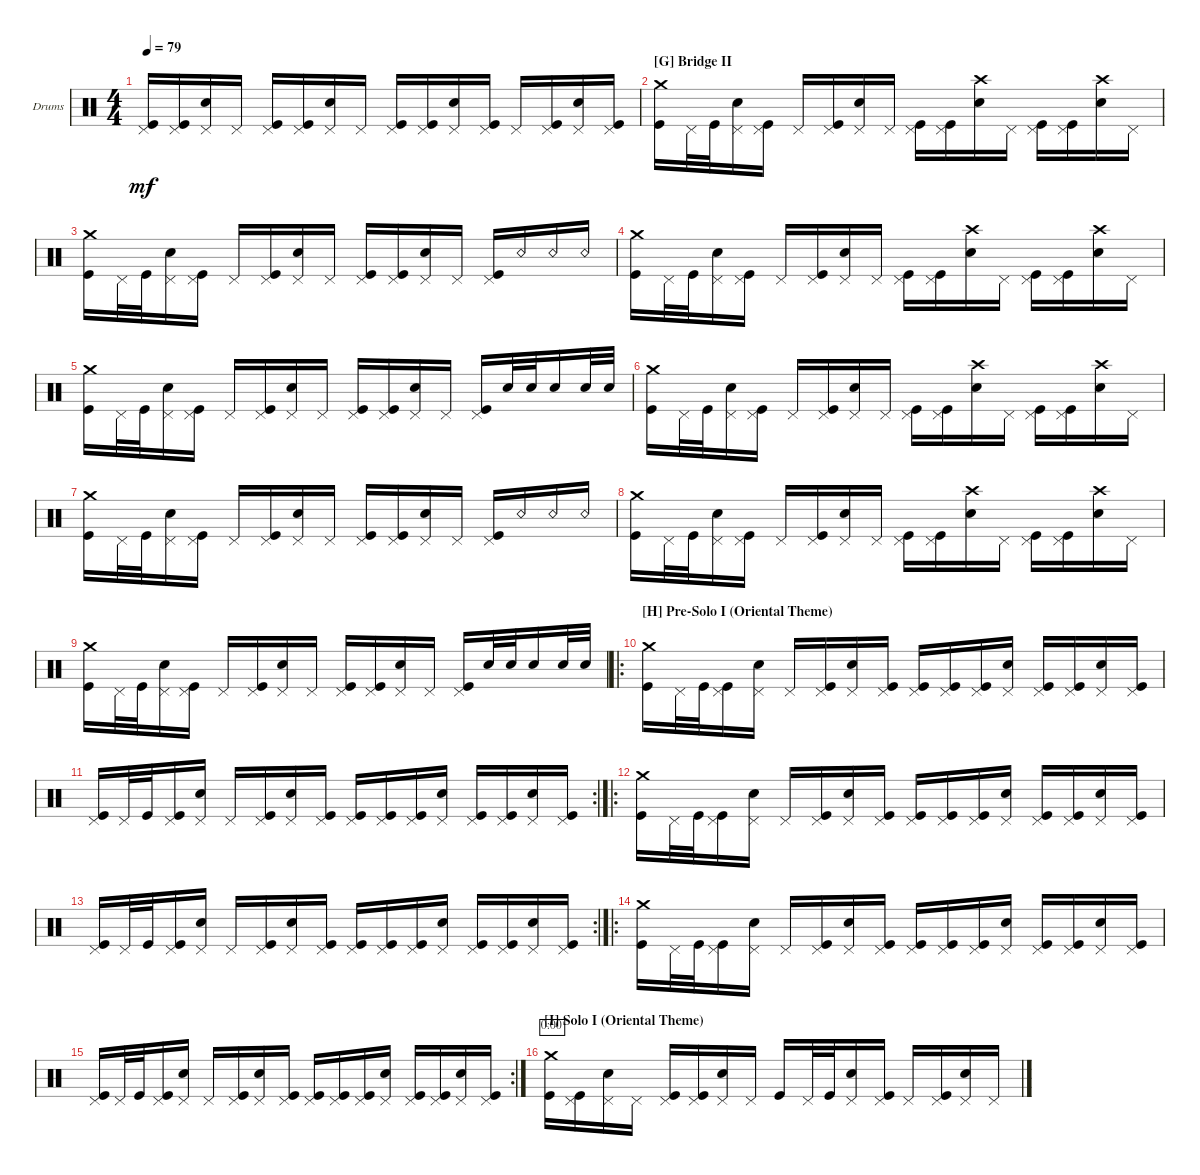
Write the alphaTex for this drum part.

\defaultSystemsLayout 4
\bracketExtendMode groupsimilarinstruments
\firstSystemTrackNameOrientation horizontal
\otherSystemsTrackNameOrientation horizontal
\track ("Drums" "Drums") {instrument percussion}
\staff {score}
\articulation defaults
\ts (4 4)
\tempo 79
\clef neutral
\ks c
("Kick (hit)" "Pedal Hi-Hat (hit)").16{dy mf} ("Pedal Hi-Hat (hit)" "Kick (hit)").16{beam merge} ("Pedal Hi-Hat (hit)" "Snare (hit) 2").16 "Pedal Hi-Hat (hit)".16 ("Pedal Hi-Hat (hit)" "Kick (hit)").16 ("Pedal Hi-Hat (hit)" "Kick (hit)").16{beam merge} ("Pedal Hi-Hat (hit)" "Snare (hit) 2").16 "Pedal Hi-Hat (hit)".16 ("Kick (hit)" "Pedal Hi-Hat (hit)").16 ("Pedal Hi-Hat (hit)" "Kick (hit)").16{beam merge} ("Pedal Hi-Hat (hit)" "Snare (hit) 2").16 ("Pedal Hi-Hat (hit)" "Kick (hit)").16 "Pedal Hi-Hat (hit)".16 ("Pedal Hi-Hat (hit)" "Kick (hit)").16{beam merge} ("Pedal Hi-Hat (hit)" "Snare (hit) 2").16 ("Pedal Hi-Hat (hit)" "Kick (hit)").16 |
\section ("G" "Bridge II")
("Kick (hit)" "Crash medium (hit)").16 "Pedal Hi-Hat (hit)".32 "Kick (hit)".32{beam merge} ("Pedal Hi-Hat (hit)" "Snare (hit) 2").16 ("Pedal Hi-Hat (hit)" "Kick (hit)").16 "Pedal Hi-Hat (hit)".16 ("Pedal Hi-Hat (hit)" "Kick (hit)").16{beam merge} ("Pedal Hi-Hat (hit)" "Snare (hit) 2").16 "Pedal Hi-Hat (hit)".16 ("Kick (hit)" "Pedal Hi-Hat (hit)").16 ("Pedal Hi-Hat (hit)" "Kick (hit)").16{beam merge} ("Snare (hit) 2" "Crash high (hit)").16 "Pedal Hi-Hat (hit)".16 ("Pedal Hi-Hat (hit)" "Kick (hit)").16 ("Pedal Hi-Hat (hit)" "Kick (hit)").16{beam merge} ("Snare (hit) 2" "Crash high (hit)").16 "Pedal Hi-Hat (hit)".16 |
("Kick (hit)" "Crash medium (hit)").16 "Pedal Hi-Hat (hit)".32 "Kick (hit)".32{beam merge} ("Pedal Hi-Hat (hit)" "Snare (hit) 2").16 ("Pedal Hi-Hat (hit)" "Kick (hit)").16 "Pedal Hi-Hat (hit)".16 ("Pedal Hi-Hat (hit)" "Kick (hit)").16{beam merge} ("Pedal Hi-Hat (hit)" "Snare (hit) 2").16 "Pedal Hi-Hat (hit)".16 ("Kick (hit)" "Pedal Hi-Hat (hit)").16 ("Pedal Hi-Hat (hit)" "Kick (hit)").16{beam merge} ("Snare (hit) 2" "Pedal Hi-Hat (hit)").16 "Pedal Hi-Hat (hit)".16 ("Pedal Hi-Hat (hit)" "Kick (hit)").16 "Snare (rim shot)".16{beam merge} "Snare (rim shot)".16{beam merge} "Snare (rim shot)".16 |
("Kick (hit)" "Crash medium (hit)").16 "Pedal Hi-Hat (hit)".32 "Kick (hit)".32{beam merge} ("Pedal Hi-Hat (hit)" "Snare (hit) 2").16 ("Pedal Hi-Hat (hit)" "Kick (hit)").16 "Pedal Hi-Hat (hit)".16 ("Pedal Hi-Hat (hit)" "Kick (hit)").16{beam merge} ("Pedal Hi-Hat (hit)" "Snare (hit) 2").16 "Pedal Hi-Hat (hit)".16 ("Kick (hit)" "Pedal Hi-Hat (hit)").16 ("Pedal Hi-Hat (hit)" "Kick (hit)").16{beam merge} ("Snare (hit) 2" "Crash high (hit)").16 "Pedal Hi-Hat (hit)".16 ("Pedal Hi-Hat (hit)" "Kick (hit)").16 ("Pedal Hi-Hat (hit)" "Kick (hit)").16{beam merge} ("Snare (hit) 2" "Crash high (hit)").16 "Pedal Hi-Hat (hit)".16 |
("Kick (hit)" "Crash medium (hit)").16 "Pedal Hi-Hat (hit)".32 "Kick (hit)".32{beam merge} ("Pedal Hi-Hat (hit)" "Snare (hit) 2").16 ("Pedal Hi-Hat (hit)" "Kick (hit)").16 "Pedal Hi-Hat (hit)".16 ("Pedal Hi-Hat (hit)" "Kick (hit)").16{beam merge} ("Pedal Hi-Hat (hit)" "Snare (hit) 2").16 "Pedal Hi-Hat (hit)".16 ("Kick (hit)" "Pedal Hi-Hat (hit)").16 ("Pedal Hi-Hat (hit)" "Kick (hit)").16{beam merge} ("Snare (hit) 2" "Pedal Hi-Hat (hit)").16 "Pedal Hi-Hat (hit)".16 ("Pedal Hi-Hat (hit)" "Kick (hit)").16 "Snare (hit) 2".32{beam merge} "Snare (hit) 2".32{beam merge} "Snare (hit) 2".16 "Snare (hit) 2".32 "Snare (hit) 2".32 |
("Kick (hit)" "Crash medium (hit)").16 "Pedal Hi-Hat (hit)".32 "Kick (hit)".32{beam merge} ("Pedal Hi-Hat (hit)" "Snare (hit) 2").16 ("Pedal Hi-Hat (hit)" "Kick (hit)").16 "Pedal Hi-Hat (hit)".16 ("Pedal Hi-Hat (hit)" "Kick (hit)").16{beam merge} ("Pedal Hi-Hat (hit)" "Snare (hit) 2").16 "Pedal Hi-Hat (hit)".16 ("Kick (hit)" "Pedal Hi-Hat (hit)").16 ("Pedal Hi-Hat (hit)" "Kick (hit)").16{beam merge} ("Snare (hit) 2" "Crash high (hit)").16 "Pedal Hi-Hat (hit)".16 ("Pedal Hi-Hat (hit)" "Kick (hit)").16 ("Pedal Hi-Hat (hit)" "Kick (hit)").16{beam merge} ("Snare (hit) 2" "Crash high (hit)").16 "Pedal Hi-Hat (hit)".16 |
("Kick (hit)" "Crash medium (hit)").16 "Pedal Hi-Hat (hit)".32 "Kick (hit)".32{beam merge} ("Pedal Hi-Hat (hit)" "Snare (hit) 2").16 ("Pedal Hi-Hat (hit)" "Kick (hit)").16 "Pedal Hi-Hat (hit)".16 ("Pedal Hi-Hat (hit)" "Kick (hit)").16{beam merge} ("Pedal Hi-Hat (hit)" "Snare (hit) 2").16 "Pedal Hi-Hat (hit)".16 ("Kick (hit)" "Pedal Hi-Hat (hit)").16 ("Pedal Hi-Hat (hit)" "Kick (hit)").16{beam merge} ("Snare (hit) 2" "Pedal Hi-Hat (hit)").16 "Pedal Hi-Hat (hit)".16 ("Pedal Hi-Hat (hit)" "Kick (hit)").16 "Snare (rim shot)".16{beam merge} "Snare (rim shot)".16{beam merge} "Snare (rim shot)".16 |
("Kick (hit)" "Crash medium (hit)").16 "Pedal Hi-Hat (hit)".32 "Kick (hit)".32{beam merge} ("Pedal Hi-Hat (hit)" "Snare (hit) 2").16 ("Pedal Hi-Hat (hit)" "Kick (hit)").16 "Pedal Hi-Hat (hit)".16 ("Pedal Hi-Hat (hit)" "Kick (hit)").16{beam merge} ("Pedal Hi-Hat (hit)" "Snare (hit) 2").16 "Pedal Hi-Hat (hit)".16 ("Kick (hit)" "Pedal Hi-Hat (hit)").16 ("Pedal Hi-Hat (hit)" "Kick (hit)").16{beam merge} ("Snare (hit) 2" "Crash high (hit)").16 "Pedal Hi-Hat (hit)".16 ("Pedal Hi-Hat (hit)" "Kick (hit)").16 ("Pedal Hi-Hat (hit)" "Kick (hit)").16{beam merge} ("Snare (hit) 2" "Crash high (hit)").16 "Pedal Hi-Hat (hit)".16 |
("Kick (hit)" "Crash medium (hit)").16 "Pedal Hi-Hat (hit)".32 "Kick (hit)".32{beam merge} ("Pedal Hi-Hat (hit)" "Snare (hit) 2").16 ("Pedal Hi-Hat (hit)" "Kick (hit)").16 "Pedal Hi-Hat (hit)".16 ("Pedal Hi-Hat (hit)" "Kick (hit)").16{beam merge} ("Pedal Hi-Hat (hit)" "Snare (hit) 2").16 "Pedal Hi-Hat (hit)".16 ("Kick (hit)" "Pedal Hi-Hat (hit)").16 ("Pedal Hi-Hat (hit)" "Kick (hit)").16{beam merge} ("Snare (hit) 2" "Pedal Hi-Hat (hit)").16 "Pedal Hi-Hat (hit)".16 ("Pedal Hi-Hat (hit)" "Kick (hit)").16 "Snare (hit) 2".32{beam merge} "Snare (hit) 2".32{beam merge} "Snare (hit) 2".16 "Snare (hit) 2".32 "Snare (hit) 2".32 |
\ro
\section ("H" "Pre-Solo I (Oriental Theme)")
("Kick (hit)" "Crash medium (hit)").16 "Pedal Hi-Hat (hit)".32 "Kick (hit)".32{beam merge} ("Pedal Hi-Hat (hit)" "Kick (hit)").16 ("Pedal Hi-Hat (hit)" "Snare (hit) 2").16 "Pedal Hi-Hat (hit)".16 ("Pedal Hi-Hat (hit)" "Kick (hit)").16{beam merge} ("Pedal Hi-Hat (hit)" "Snare (hit) 2").16 ("Pedal Hi-Hat (hit)" "Kick (hit)").16 ("Kick (hit)" "Pedal Hi-Hat (hit)").16 ("Pedal Hi-Hat (hit)" "Kick (hit)").16{beam merge} ("Pedal Hi-Hat (hit)" "Kick (hit)").16 ("Pedal Hi-Hat (hit)" "Snare (hit) 2").16 ("Pedal Hi-Hat (hit)" "Kick (hit)").16 ("Pedal Hi-Hat (hit)" "Kick (hit)").16{beam merge} ("Pedal Hi-Hat (hit)" "Snare (hit) 2").16 ("Pedal Hi-Hat (hit)" "Kick (hit)").16 |
\rc 2
("Kick (hit)" "Pedal Hi-Hat (hit)").16 "Pedal Hi-Hat (hit)".32 "Kick (hit)".32{beam merge} ("Pedal Hi-Hat (hit)" "Kick (hit)").16 ("Pedal Hi-Hat (hit)" "Snare (hit) 2").16 "Pedal Hi-Hat (hit)".16 ("Pedal Hi-Hat (hit)" "Kick (hit)").16{beam merge} ("Pedal Hi-Hat (hit)" "Snare (hit) 2").16 ("Pedal Hi-Hat (hit)" "Kick (hit)").16 ("Kick (hit)" "Pedal Hi-Hat (hit)").16 ("Pedal Hi-Hat (hit)" "Kick (hit)").16{beam merge} ("Pedal Hi-Hat (hit)" "Kick (hit)").16 ("Pedal Hi-Hat (hit)" "Snare (hit) 2").16 ("Pedal Hi-Hat (hit)" "Kick (hit)").16 ("Pedal Hi-Hat (hit)" "Kick (hit)").16{beam merge} ("Pedal Hi-Hat (hit)" "Snare (hit) 2").16 ("Pedal Hi-Hat (hit)" "Kick (hit)").16 |
\ro
("Kick (hit)" "Crash medium (hit)").16 "Pedal Hi-Hat (hit)".32 "Kick (hit)".32{beam merge} ("Pedal Hi-Hat (hit)" "Kick (hit)").16 ("Pedal Hi-Hat (hit)" "Snare (hit) 2").16 "Pedal Hi-Hat (hit)".16 ("Pedal Hi-Hat (hit)" "Kick (hit)").16{beam merge} ("Pedal Hi-Hat (hit)" "Snare (hit) 2").16 ("Pedal Hi-Hat (hit)" "Kick (hit)").16 ("Kick (hit)" "Pedal Hi-Hat (hit)").16 ("Pedal Hi-Hat (hit)" "Kick (hit)").16{beam merge} ("Pedal Hi-Hat (hit)" "Kick (hit)").16 ("Pedal Hi-Hat (hit)" "Snare (hit) 2").16 ("Pedal Hi-Hat (hit)" "Kick (hit)").16 ("Pedal Hi-Hat (hit)" "Kick (hit)").16{beam merge} ("Pedal Hi-Hat (hit)" "Snare (hit) 2").16 ("Pedal Hi-Hat (hit)" "Kick (hit)").16 |
\rc 2
("Kick (hit)" "Pedal Hi-Hat (hit)").16 "Pedal Hi-Hat (hit)".32 "Kick (hit)".32{beam merge} ("Pedal Hi-Hat (hit)" "Kick (hit)").16 ("Pedal Hi-Hat (hit)" "Snare (hit) 2").16 "Pedal Hi-Hat (hit)".16 ("Pedal Hi-Hat (hit)" "Kick (hit)").16{beam merge} ("Pedal Hi-Hat (hit)" "Snare (hit) 2").16 ("Pedal Hi-Hat (hit)" "Kick (hit)").16 ("Kick (hit)" "Pedal Hi-Hat (hit)").16 ("Pedal Hi-Hat (hit)" "Kick (hit)").16{beam merge} ("Pedal Hi-Hat (hit)" "Kick (hit)").16 ("Pedal Hi-Hat (hit)" "Snare (hit) 2").16 ("Pedal Hi-Hat (hit)" "Kick (hit)").16 ("Pedal Hi-Hat (hit)" "Kick (hit)").16{beam merge} ("Pedal Hi-Hat (hit)" "Snare (hit) 2").16 ("Pedal Hi-Hat (hit)" "Kick (hit)").16 |
\ro
("Kick (hit)" "Crash medium (hit)").16 "Pedal Hi-Hat (hit)".32 "Kick (hit)".32{beam merge} ("Pedal Hi-Hat (hit)" "Kick (hit)").16 ("Pedal Hi-Hat (hit)" "Snare (hit) 2").16 "Pedal Hi-Hat (hit)".16 ("Pedal Hi-Hat (hit)" "Kick (hit)").16{beam merge} ("Pedal Hi-Hat (hit)" "Snare (hit) 2").16 ("Pedal Hi-Hat (hit)" "Kick (hit)").16 ("Kick (hit)" "Pedal Hi-Hat (hit)").16 ("Pedal Hi-Hat (hit)" "Kick (hit)").16{beam merge} ("Pedal Hi-Hat (hit)" "Kick (hit)").16 ("Pedal Hi-Hat (hit)" "Snare (hit) 2").16 ("Pedal Hi-Hat (hit)" "Kick (hit)").16 ("Pedal Hi-Hat (hit)" "Kick (hit)").16{beam merge} ("Pedal Hi-Hat (hit)" "Snare (hit) 2").16 ("Pedal Hi-Hat (hit)" "Kick (hit)").16 |
\rc 2
("Kick (hit)" "Pedal Hi-Hat (hit)").16 "Pedal Hi-Hat (hit)".32 "Kick (hit)".32{beam merge} ("Pedal Hi-Hat (hit)" "Kick (hit)").16 ("Pedal Hi-Hat (hit)" "Snare (hit) 2").16 "Pedal Hi-Hat (hit)".16 ("Pedal Hi-Hat (hit)" "Kick (hit)").16{beam merge} ("Pedal Hi-Hat (hit)" "Snare (hit) 2").16 ("Pedal Hi-Hat (hit)" "Kick (hit)").16 ("Kick (hit)" "Pedal Hi-Hat (hit)").16 ("Pedal Hi-Hat (hit)" "Kick (hit)").16{beam merge} ("Pedal Hi-Hat (hit)" "Kick (hit)").16 ("Pedal Hi-Hat (hit)" "Snare (hit) 2").16 ("Pedal Hi-Hat (hit)" "Kick (hit)").16 ("Pedal Hi-Hat (hit)" "Kick (hit)").16{beam merge} ("Pedal Hi-Hat (hit)" "Snare (hit) 2").16 ("Pedal Hi-Hat (hit)" "Kick (hit)").16 |
\section ("I" "Solo I (Oriental Theme)")
("Kick (hit)" "Crash medium (hit)").16{timer} ("Pedal Hi-Hat (hit)" "Kick (hit)").16{beam merge} ("Pedal Hi-Hat (hit)" "Snare (hit) 2").16 "Pedal Hi-Hat (hit)".16 ("Pedal Hi-Hat (hit)" "Kick (hit)").16 ("Pedal Hi-Hat (hit)" "Kick (hit)").16{beam merge} ("Pedal Hi-Hat (hit)" "Snare (hit) 2").16 "Pedal Hi-Hat (hit)".16 "Kick (hit)".16 "Pedal Hi-Hat (hit)".32 "Kick (hit)".32{beam merge} ("Pedal Hi-Hat (hit)" "Snare (hit) 2").16 ("Pedal Hi-Hat (hit)" "Kick (hit)").16 "Pedal Hi-Hat (hit)".16 ("Pedal Hi-Hat (hit)" "Kick (hit)").16{beam merge} ("Pedal Hi-Hat (hit)" "Snare (hit) 2").16 "Pedal Hi-Hat (hit)".16
